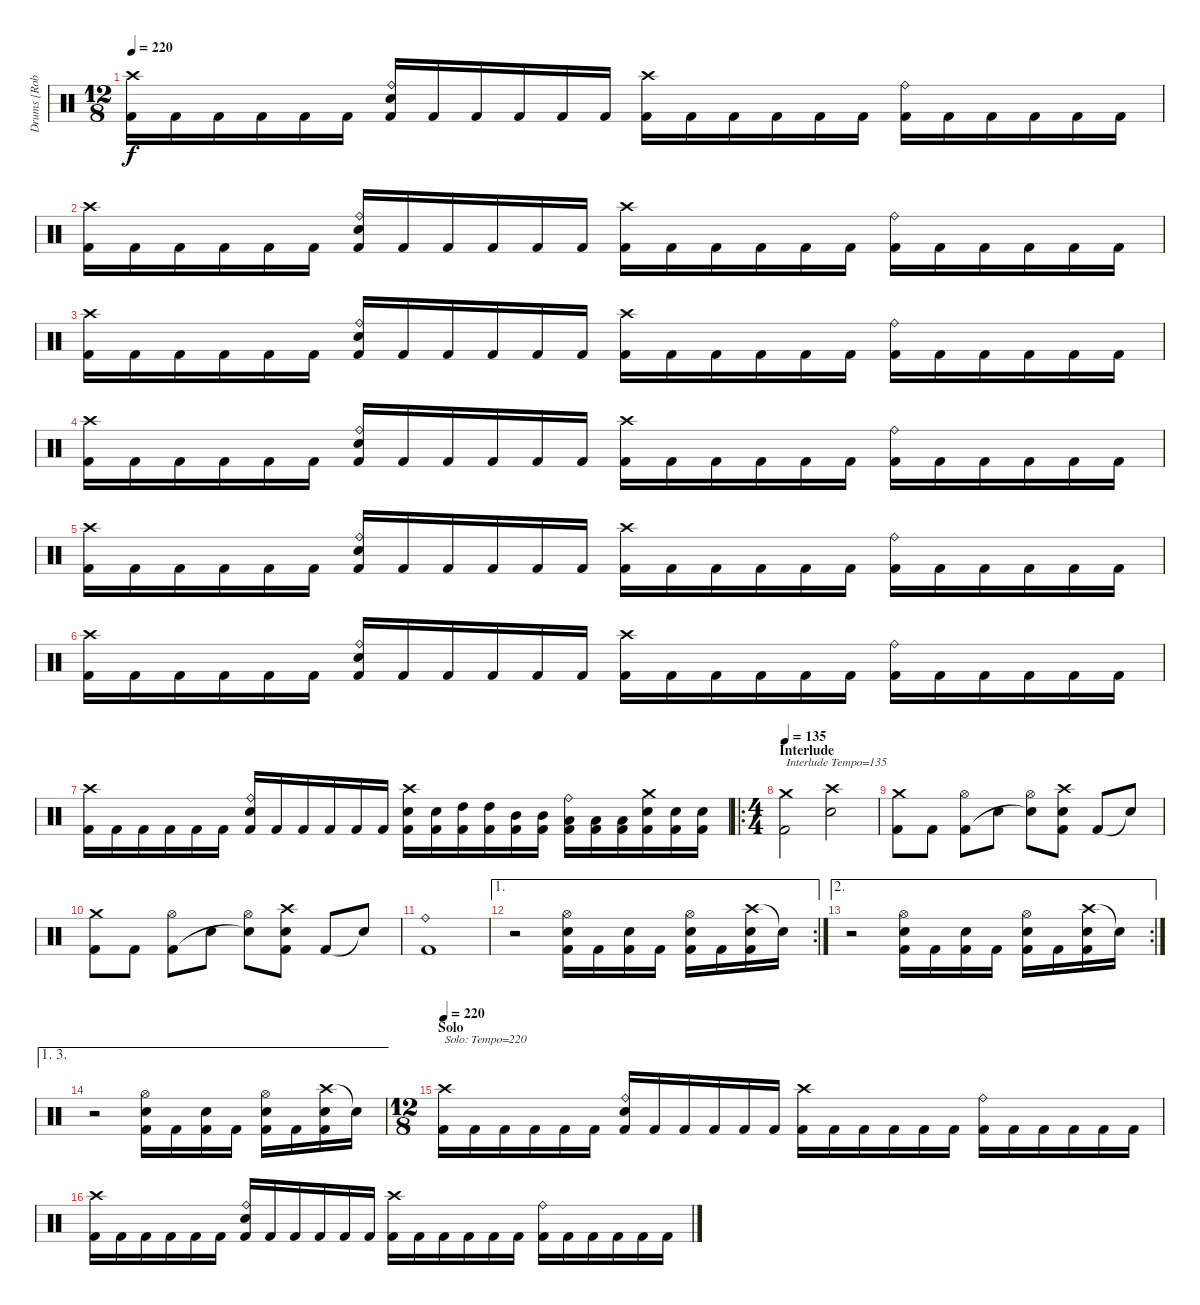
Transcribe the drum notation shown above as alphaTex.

\track ("Drums [Robert Patrick]" "Drums [Rob") {instrument percussion}
\staff {score}
\articulation defaults
\ts (12 8)
\tempo 220
\clef neutral
\ks c
("Crash high (hit)" "Kick (hit) 2").16{dy f} "Kick (hit) 2".16 "Kick (hit) 2".16 "Kick (hit) 2".16 "Kick (hit) 2".16 "Kick (hit) 2".16 ("Ride (bell)" "Electric Snare (hit)" "Kick (hit) 2").16 "Kick (hit) 2".16 "Kick (hit) 2".16 "Kick (hit) 2".16 "Kick (hit) 2".16 "Kick (hit) 2".16 ("Crash high (hit)" "Kick (hit) 2").16 "Kick (hit) 2".16 "Kick (hit) 2".16 "Kick (hit) 2".16 "Kick (hit) 2".16 "Kick (hit) 2".16 ("Ride (bell)" "Kick (hit) 2").16 "Kick (hit) 2".16 "Kick (hit) 2".16 "Kick (hit) 2".16 "Kick (hit) 2".16 "Kick (hit) 2".16 |
("Crash high (hit)" "Kick (hit) 2").16 "Kick (hit) 2".16 "Kick (hit) 2".16 "Kick (hit) 2".16 "Kick (hit) 2".16 "Kick (hit) 2".16 ("Ride (bell)" "Electric Snare (hit)" "Kick (hit) 2").16 "Kick (hit) 2".16 "Kick (hit) 2".16 "Kick (hit) 2".16 "Kick (hit) 2".16 "Kick (hit) 2".16 ("Crash high (hit)" "Kick (hit) 2").16 "Kick (hit) 2".16 "Kick (hit) 2".16 "Kick (hit) 2".16 "Kick (hit) 2".16 "Kick (hit) 2".16 ("Ride (bell)" "Kick (hit) 2").16 "Kick (hit) 2".16 "Kick (hit) 2".16 "Kick (hit) 2".16 "Kick (hit) 2".16 "Kick (hit) 2".16 |
("Crash high (hit)" "Kick (hit) 2").16 "Kick (hit) 2".16 "Kick (hit) 2".16 "Kick (hit) 2".16 "Kick (hit) 2".16 "Kick (hit) 2".16 ("Ride (bell)" "Electric Snare (hit)" "Kick (hit) 2").16 "Kick (hit) 2".16 "Kick (hit) 2".16 "Kick (hit) 2".16 "Kick (hit) 2".16 "Kick (hit) 2".16 ("Crash high (hit)" "Kick (hit) 2").16 "Kick (hit) 2".16 "Kick (hit) 2".16 "Kick (hit) 2".16 "Kick (hit) 2".16 "Kick (hit) 2".16 ("Ride (bell)" "Kick (hit) 2").16 "Kick (hit) 2".16 "Kick (hit) 2".16 "Kick (hit) 2".16 "Kick (hit) 2".16 "Kick (hit) 2".16 |
("Crash high (hit)" "Kick (hit) 2").16 "Kick (hit) 2".16 "Kick (hit) 2".16 "Kick (hit) 2".16 "Kick (hit) 2".16 "Kick (hit) 2".16 ("Ride (bell)" "Electric Snare (hit)" "Kick (hit) 2").16 "Kick (hit) 2".16 "Kick (hit) 2".16 "Kick (hit) 2".16 "Kick (hit) 2".16 "Kick (hit) 2".16 ("Crash high (hit)" "Kick (hit) 2").16 "Kick (hit) 2".16 "Kick (hit) 2".16 "Kick (hit) 2".16 "Kick (hit) 2".16 "Kick (hit) 2".16 ("Ride (bell)" "Kick (hit) 2").16 "Kick (hit) 2".16 "Kick (hit) 2".16 "Kick (hit) 2".16 "Kick (hit) 2".16 "Kick (hit) 2".16 |
("Crash high (hit)" "Kick (hit) 2").16 "Kick (hit) 2".16 "Kick (hit) 2".16 "Kick (hit) 2".16 "Kick (hit) 2".16 "Kick (hit) 2".16 ("Ride (bell)" "Electric Snare (hit)" "Kick (hit) 2").16 "Kick (hit) 2".16 "Kick (hit) 2".16 "Kick (hit) 2".16 "Kick (hit) 2".16 "Kick (hit) 2".16 ("Crash high (hit)" "Kick (hit) 2").16 "Kick (hit) 2".16 "Kick (hit) 2".16 "Kick (hit) 2".16 "Kick (hit) 2".16 "Kick (hit) 2".16 ("Ride (bell)" "Kick (hit) 2").16 "Kick (hit) 2".16 "Kick (hit) 2".16 "Kick (hit) 2".16 "Kick (hit) 2".16 "Kick (hit) 2".16 |
("Crash high (hit)" "Kick (hit) 2").16 "Kick (hit) 2".16 "Kick (hit) 2".16 "Kick (hit) 2".16 "Kick (hit) 2".16 "Kick (hit) 2".16 ("Ride (bell)" "Electric Snare (hit)" "Kick (hit) 2").16 "Kick (hit) 2".16 "Kick (hit) 2".16 "Kick (hit) 2".16 "Kick (hit) 2".16 "Kick (hit) 2".16 ("Crash high (hit)" "Kick (hit) 2").16 "Kick (hit) 2".16 "Kick (hit) 2".16 "Kick (hit) 2".16 "Kick (hit) 2".16 "Kick (hit) 2".16 ("Ride (bell)" "Kick (hit) 2").16 "Kick (hit) 2".16 "Kick (hit) 2".16 "Kick (hit) 2".16 "Kick (hit) 2".16 "Kick (hit) 2".16 |
("Crash high (hit)" "Kick (hit) 2").16 "Kick (hit) 2".16 "Kick (hit) 2".16 "Kick (hit) 2".16 "Kick (hit) 2".16 "Kick (hit) 2".16 ("Ride (bell)" "Electric Snare (hit)" "Kick (hit) 2").16 "Kick (hit) 2".16 "Kick (hit) 2".16 "Kick (hit) 2".16 "Kick (hit) 2".16 "Kick (hit) 2".16 ("Crash high (hit)" "Electric Snare (hit)" "Kick (hit) 2").16 ("Electric Snare (hit)" "Kick (hit) 2").16 ("High Tom (hit)" "Kick (hit) 2").16 ("High Tom (hit)" "Kick (hit) 2").16 ("Mid Tom (hit)" "Kick (hit) 2").16 ("Mid Tom (hit)" "Kick (hit) 2").16 ("Ride (bell)" "Low Tom (hit)" "Kick (hit) 2").16 ("Low Tom (hit)" "Kick (hit) 2").16 ("Low Tom (hit)" "Kick (hit) 2").16 ("Crash medium (hit)" "Electric Snare (hit)" "Kick (hit) 2").16 ("Electric Snare (hit)" "Kick (hit) 2").16 ("Electric Snare (hit)" "Kick (hit) 2").16 |
\ro
\ts (4 4)
\section ("" "Interlude")
\tempo 135
("Crash medium (hit)" "Kick (hit) 2").2{txt "Interlude Tempo=135"} ("Crash high (hit)" "Electric Snare (hit)").2 |
("Crash medium (hit)" "Kick (hit) 2").8 "Kick (hit) 2".8 ("Hi-Hat (open)" "Kick (hit) 2").8 "Electric Snare (hit)".8 ("Hi-Hat (open)" "Snare (hit)"{t}).8 ("Crash high (hit)" "Electric Snare (hit)" "Kick (hit) 2").8 "Kick (hit) 2".8 "Snare (hit)"{t}.8 |
("Crash medium (hit)" "Kick (hit) 2").8 "Kick (hit) 2".8 ("Hi-Hat (open)" "Kick (hit) 2").8 "Electric Snare (hit)".8 ("Hi-Hat (open)" "Snare (hit)"{t}).8 ("Crash high (hit)" "Electric Snare (hit)" "Kick (hit) 2").8 "Kick (hit) 2".8 "Snare (hit)"{t}.8 |
("Ride (bell)" "Kick (hit) 2").1 |
\ae 1
\rc 2
r.2 ("Hi-Hat (open)" "Electric Snare (hit)" "Kick (hit) 2").16 "Kick (hit) 2".16 ("Electric Snare (hit)" "Kick (hit) 2").16 "Kick (hit) 2".16 ("Hi-Hat (open)" "Electric Snare (hit)" "Kick (hit) 2").16 "Kick (hit) 2".16 ("Crash high (hit)" "Electric Snare (hit)" "Kick (hit) 2").16 "Snare (hit)"{t}.16 |
\ae 2
\rc 2
r.2 ("Hi-Hat (open)" "Electric Snare (hit)" "Kick (hit) 2").16 "Kick (hit) 2".16 ("Electric Snare (hit)" "Kick (hit) 2").16 "Kick (hit) 2".16 ("Hi-Hat (open)" "Electric Snare (hit)" "Kick (hit) 2").16 "Kick (hit) 2".16 ("Crash high (hit)" "Electric Snare (hit)" "Kick (hit) 2").16 "Snare (hit)"{t}.16 |
\ae (1 3)
r.2 ("Hi-Hat (open)" "Electric Snare (hit)" "Kick (hit) 2").16 "Kick (hit) 2".16 ("Electric Snare (hit)" "Kick (hit) 2").16 "Kick (hit) 2".16 ("Hi-Hat (open)" "Electric Snare (hit)" "Kick (hit) 2").16 "Kick (hit) 2".16 ("Crash high (hit)" "Electric Snare (hit)" "Kick (hit) 2").16 "Snare (hit)"{t}.16 |
\ts (12 8)
\section ("" "Solo")
\tempo 220
("Crash high (hit)" "Kick (hit) 2").16{txt "Solo: Tempo=220"} "Kick (hit) 2".16 "Kick (hit) 2".16 "Kick (hit) 2".16 "Kick (hit) 2".16 "Kick (hit) 2".16 ("Ride (bell)" "Electric Snare (hit)" "Kick (hit) 2").16 "Kick (hit) 2".16 "Kick (hit) 2".16 "Kick (hit) 2".16 "Kick (hit) 2".16 "Kick (hit) 2".16 ("Crash high (hit)" "Kick (hit) 2").16 "Kick (hit) 2".16 "Kick (hit) 2".16 "Kick (hit) 2".16 "Kick (hit) 2".16 "Kick (hit) 2".16 ("Ride (bell)" "Kick (hit) 2").16 "Kick (hit) 2".16 "Kick (hit) 2".16 "Kick (hit) 2".16 "Kick (hit) 2".16 "Kick (hit) 2".16 |
("Crash high (hit)" "Kick (hit) 2").16 "Kick (hit) 2".16 "Kick (hit) 2".16 "Kick (hit) 2".16 "Kick (hit) 2".16 "Kick (hit) 2".16 ("Ride (bell)" "Electric Snare (hit)" "Kick (hit) 2").16 "Kick (hit) 2".16 "Kick (hit) 2".16 "Kick (hit) 2".16 "Kick (hit) 2".16 "Kick (hit) 2".16 ("Crash high (hit)" "Kick (hit) 2").16 "Kick (hit) 2".16 "Kick (hit) 2".16 "Kick (hit) 2".16 "Kick (hit) 2".16 "Kick (hit) 2".16 ("Ride (bell)" "Kick (hit) 2").16 "Kick (hit) 2".16 "Kick (hit) 2".16 "Kick (hit) 2".16 "Kick (hit) 2".16 "Kick (hit) 2".16
